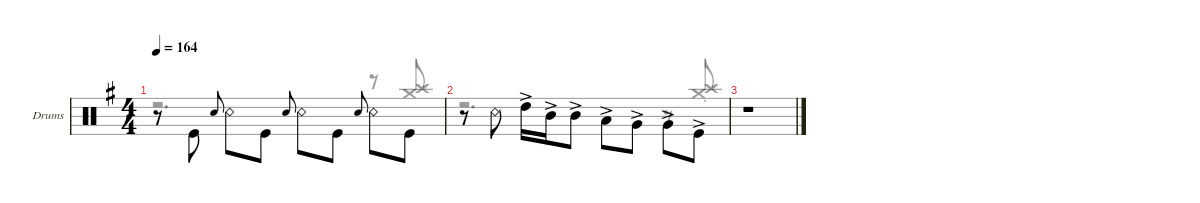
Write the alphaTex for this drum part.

\defaultSystemsLayout 4
\hideDynamics
\bracketExtendMode groupsimilarinstruments
\firstSystemTrackNameOrientation horizontal
\otherSystemsTrackNameOrientation horizontal
\track ("Drumkit" "Drums") {multiBarRest instrument percussion}
\staff {score}
\articulation defaults
\voice
\ts (4 4)
\tempo 164
\clef neutral
\ks eminor
r.8{dy ff} "Kick (hit)".8{beam invert} "Snare (hit) 2".8{gr onbeat} "Snare (rim shot)".8{beam invert} "Kick (hit)".8 "Snare (hit) 2".8{gr onbeat} "Snare (rim shot)".8{beam invert} "Kick (hit)".8 "Snare (hit) 2".8{gr onbeat} "Snare (rim shot)".8{beam invert} "Kick (hit)".8 |
r.8 "Snare (rim shot)".8{beam invert} "High Tom (hit)"{ac}.16{beam invert} "Mid Tom (hit)"{ac}.16 "Mid Tom (hit)"{ac}.8 "Low Tom (hit)"{ac}.8{beam invert} "Very Low Tom (hit)"{ac}.8 "Very Low Tom (hit)"{ac}.8{beam invert} "Kick (hit)"{ac}.8 |
r.1
\voice
\clef neutral
\ottava regular
\simile none
\ks eminor
r.2{d dy ff} r.8 ("Crash medium (hit)" "Crash high (hit)").8{beam invert} |
r.2{d} r.8 ("Crash high (hit)"{st} "Crash medium (hit)"{st}).8{dy f beam invert} |
